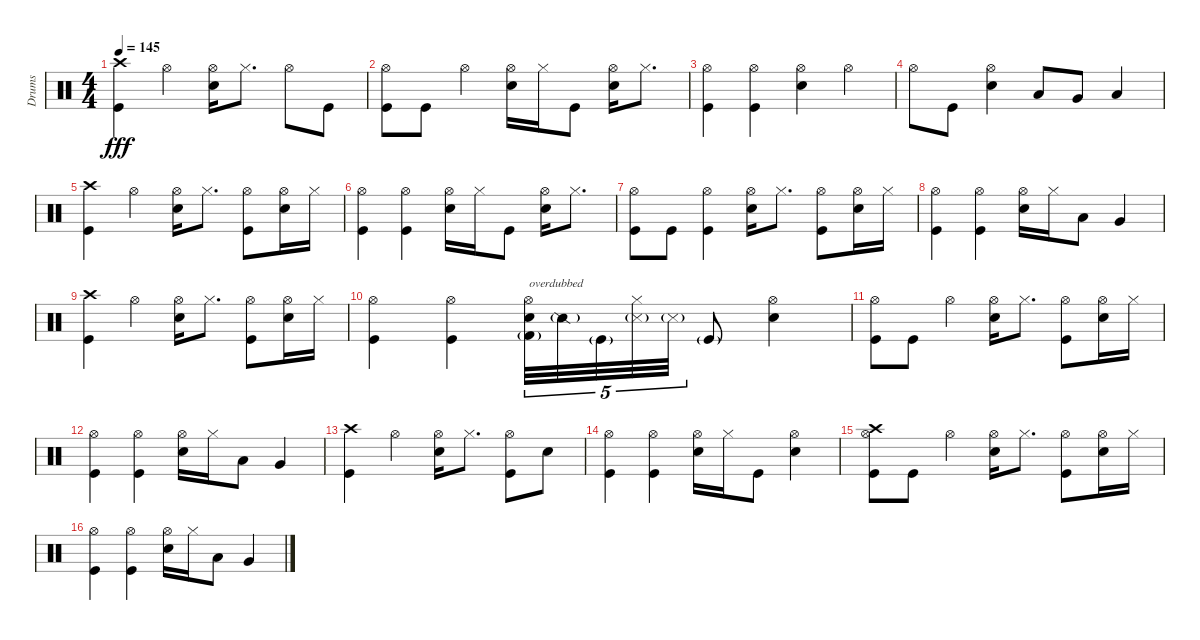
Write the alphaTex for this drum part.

\track ("Drums" "Drums") {instrument percussion}
\staff {score}
\articulation defaults
\ts (4 4)
\tempo 145
\clef neutral
\ks c
("Crash high (hit)" "Kick (hit)").4{dy fff} "Hi-Hat (open)".4 ("Hi-Hat (open)" "Snare (hit) 2").16 "Hi-Hat (closed)".8{d} "Hi-Hat (open)".8 "Kick (hit)".8 |
("Hi-Hat (open)" "Kick (hit)").8 "Kick (hit)".8 "Hi-Hat (open)".4 ("Hi-Hat (open)" "Snare (hit) 2").16 "Hi-Hat (closed)".16 "Kick (hit)".8 ("Hi-Hat (open)" "Snare (hit) 2").16 "Hi-Hat (closed)".8{d} |
("Hi-Hat (open)" "Kick (hit)").4 ("Hi-Hat (open)" "Kick (hit)").4 ("Hi-Hat (open)" "Snare (hit) 2").4 "Hi-Hat (open)".4 |
"Hi-Hat (open)".8 "Kick (hit)".8 ("Hi-Hat (open)" "Snare (hit) 2").4 "Low Tom (hit)".8 "Very Low Tom (hit)".8 "Low Floor Tom (hit)".4 |
("Crash high (hit)" "Kick (hit)").4 "Hi-Hat (open)".4 ("Hi-Hat (open)" "Snare (hit) 2").16 "Hi-Hat (closed)".8{d} ("Hi-Hat (open)" "Kick (hit)").8 ("Hi-Hat (open)" "Snare (hit) 2").16 "Hi-Hat (closed)".16 |
("Hi-Hat (open)" "Kick (hit)").4 ("Hi-Hat (open)" "Kick (hit)").4 ("Hi-Hat (open)" "Snare (hit) 2").16 "Hi-Hat (closed)".16 "Kick (hit)".8 ("Hi-Hat (open)" "Snare (hit) 2").16 "Hi-Hat (closed)".8{d} |
("Hi-Hat (open)" "Kick (hit)").8 "Kick (hit)".8 ("Hi-Hat (open)" "Kick (hit)").4 ("Hi-Hat (open)" "Snare (hit) 2").16 "Hi-Hat (closed)".8{d} ("Hi-Hat (open)" "Kick (hit)").8 ("Hi-Hat (open)" "Snare (hit) 2").16 "Hi-Hat (closed)".16 |
("Hi-Hat (open)" "Kick (hit)").4 ("Hi-Hat (open)" "Kick (hit)").4 ("Hi-Hat (open)" "Snare (hit) 2").16 "Hi-Hat (closed)".16 "Low Tom (hit)".8 "Very Low Tom (hit)".4 |
("Crash high (hit)" "Kick (hit)").4 "Hi-Hat (open)".4 ("Hi-Hat (open)" "Snare (hit) 2").16 "Hi-Hat (closed)".8{d} ("Hi-Hat (open)" "Kick (hit)").8 ("Hi-Hat (open)" "Snare (hit) 2").16 "Hi-Hat (closed)".16 |
("Hi-Hat (open)" "Kick (hit)").4 ("Hi-Hat (open)" "Kick (hit)").4 ("Hi-Hat (open)" "Snare (hit) 2" "Kick (hit) 2"{g}).32{tu (5 4) txt "overdubbed"} "Snare (side stick) 2"{g}.32{tu (5 4)} "Kick (hit)"{g}.32{tu (5 4)} ("Hi-Hat (closed)" "Snare (side stick) 3"{g}).32{tu (5 4)} "Metronome (hit)"{g}.32{tu (5 4)} "Kick (hit)"{g}.8 ("Hi-Hat (open)" "Snare (hit) 2").4 |
("Hi-Hat (open)" "Kick (hit)").8 "Kick (hit)".8 "Hi-Hat (open)".4 ("Hi-Hat (open)" "Snare (hit) 2").16 "Hi-Hat (closed)".8{d} ("Hi-Hat (open)" "Kick (hit)").8 ("Hi-Hat (open)" "Snare (hit) 2").16 "Hi-Hat (closed)".16 |
("Hi-Hat (open)" "Kick (hit)").4 ("Hi-Hat (open)" "Kick (hit)").4 ("Hi-Hat (open)" "Snare (hit) 2").16 "Hi-Hat (closed)".16 "Low Tom (hit)".8 "Very Low Tom (hit)".4 |
("Crash high (hit)" "Kick (hit)").4 "Hi-Hat (open)".4 ("Hi-Hat (open)" "Snare (hit) 2").16 "Hi-Hat (closed)".8{d} ("Hi-Hat (open)" "Kick (hit)").8 "Snare (hit) 2".8 |
("Hi-Hat (open)" "Kick (hit)").4 ("Hi-Hat (open)" "Kick (hit)").4 ("Hi-Hat (open)" "Snare (hit) 2").16 "Hi-Hat (closed)".16 "Kick (hit)".8 ("Hi-Hat (open)" "Snare (hit) 2").4 |
("Hi-Hat (open)" "Crash high (hit)" "Kick (hit)").8 "Kick (hit)".8 "Hi-Hat (open)".4 ("Hi-Hat (open)" "Snare (hit) 2").16 "Hi-Hat (closed)".8{d} ("Hi-Hat (open)" "Kick (hit)").8 ("Hi-Hat (open)" "Snare (hit) 2").16 "Hi-Hat (closed)".16 |
("Hi-Hat (open)" "Kick (hit)").4 ("Hi-Hat (open)" "Kick (hit)").4 ("Hi-Hat (open)" "Snare (hit) 2").16 "Hi-Hat (closed)".16 "Low Tom (hit)".8 "Very Low Tom (hit)".4
